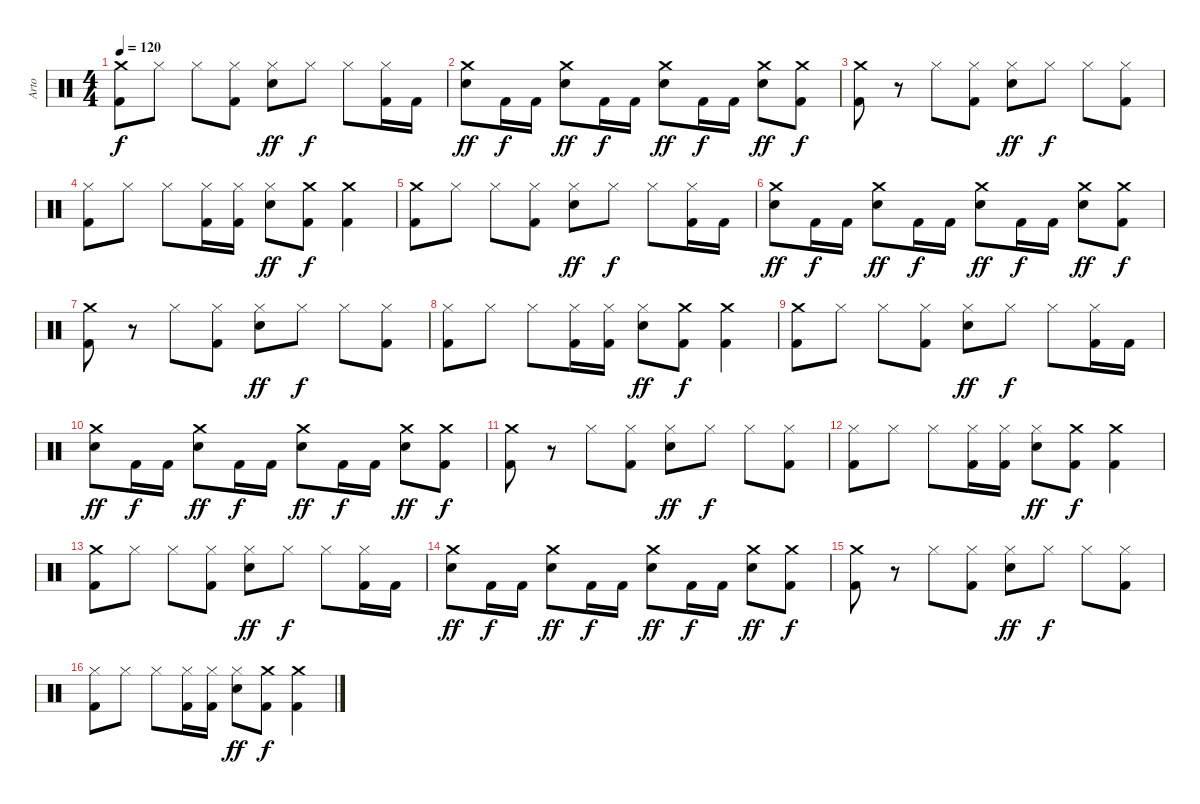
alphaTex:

\track ("Arto" "Arto") {instrument percussion}
\staff {score}
\articulation defaults
\ts (4 4)
\tempo 120
\clef neutral
\ks c
("Crash medium (hit)" "Kick (hit) 2").8{dy f} "Hi-Hat (closed)".8 "Hi-Hat (closed)".8 ("Hi-Hat (closed)" "Kick (hit) 2").8 ("Hi-Hat (closed)" "Snare (hit) 2").8{dy ff} "Hi-Hat (closed)".8{dy f} "Hi-Hat (closed)".8 ("Hi-Hat (closed)" "Kick (hit) 2").16 "Kick (hit) 2".16 |
("Crash medium (hit)" "Snare (hit) 2").8{dy ff} "Kick (hit) 2".16{dy f} "Kick (hit) 2".16 ("Crash medium (hit)" "Snare (hit) 2").8{dy ff} "Kick (hit) 2".16{dy f} "Kick (hit) 2".16 ("Crash medium (hit)" "Snare (hit) 2").8{dy ff} "Kick (hit) 2".16{dy f} "Kick (hit) 2".16 ("Crash medium (hit)" "Snare (hit) 2").8{dy ff} ("Crash medium (hit)" "Kick (hit) 2").8{dy f} |
("Crash medium (hit)" "Kick (hit) 2").8 r.8 "Hi-Hat (closed)".8 ("Hi-Hat (closed)" "Kick (hit) 2").8 ("Hi-Hat (closed)" "Snare (hit) 2").8{dy ff} "Hi-Hat (closed)".8{dy f} "Hi-Hat (closed)".8 ("Hi-Hat (closed)" "Kick (hit) 2").8 |
("Hi-Hat (closed)" "Kick (hit) 2").8 "Hi-Hat (closed)".8 "Hi-Hat (closed)".8 ("Hi-Hat (closed)" "Kick (hit) 2").16 ("Hi-Hat (closed)" "Kick (hit) 2").16 ("Hi-Hat (closed)" "Snare (hit) 2").8{dy ff} ("Crash medium (hit)" "Kick (hit) 2").8{dy f} ("Crash medium (hit)" "Kick (hit) 2").4 |
("Crash medium (hit)" "Kick (hit) 2").8 "Hi-Hat (closed)".8 "Hi-Hat (closed)".8 ("Hi-Hat (closed)" "Kick (hit) 2").8 ("Hi-Hat (closed)" "Snare (hit) 2").8{dy ff} "Hi-Hat (closed)".8{dy f} "Hi-Hat (closed)".8 ("Hi-Hat (closed)" "Kick (hit) 2").16 "Kick (hit) 2".16 |
("Crash medium (hit)" "Snare (hit) 2").8{dy ff} "Kick (hit) 2".16{dy f} "Kick (hit) 2".16 ("Crash medium (hit)" "Snare (hit) 2").8{dy ff} "Kick (hit) 2".16{dy f} "Kick (hit) 2".16 ("Crash medium (hit)" "Snare (hit) 2").8{dy ff} "Kick (hit) 2".16{dy f} "Kick (hit) 2".16 ("Crash medium (hit)" "Snare (hit) 2").8{dy ff} ("Crash medium (hit)" "Kick (hit) 2").8{dy f} |
("Crash medium (hit)" "Kick (hit) 2").8 r.8 "Hi-Hat (closed)".8 ("Hi-Hat (closed)" "Kick (hit) 2").8 ("Hi-Hat (closed)" "Snare (hit) 2").8{dy ff} "Hi-Hat (closed)".8{dy f} "Hi-Hat (closed)".8 ("Hi-Hat (closed)" "Kick (hit) 2").8 |
("Hi-Hat (closed)" "Kick (hit) 2").8 "Hi-Hat (closed)".8 "Hi-Hat (closed)".8 ("Hi-Hat (closed)" "Kick (hit) 2").16 ("Hi-Hat (closed)" "Kick (hit) 2").16 ("Hi-Hat (closed)" "Snare (hit) 2").8{dy ff} ("Crash medium (hit)" "Kick (hit) 2").8{dy f} ("Crash medium (hit)" "Kick (hit) 2").4 |
("Crash medium (hit)" "Kick (hit) 2").8 "Hi-Hat (closed)".8 "Hi-Hat (closed)".8 ("Hi-Hat (closed)" "Kick (hit) 2").8 ("Hi-Hat (closed)" "Snare (hit) 2").8{dy ff} "Hi-Hat (closed)".8{dy f} "Hi-Hat (closed)".8 ("Hi-Hat (closed)" "Kick (hit) 2").16 "Kick (hit) 2".16 |
("Crash medium (hit)" "Snare (hit) 2").8{dy ff} "Kick (hit) 2".16{dy f} "Kick (hit) 2".16 ("Crash medium (hit)" "Snare (hit) 2").8{dy ff} "Kick (hit) 2".16{dy f} "Kick (hit) 2".16 ("Crash medium (hit)" "Snare (hit) 2").8{dy ff} "Kick (hit) 2".16{dy f} "Kick (hit) 2".16 ("Crash medium (hit)" "Snare (hit) 2").8{dy ff} ("Crash medium (hit)" "Kick (hit) 2").8{dy f} |
("Crash medium (hit)" "Kick (hit) 2").8 r.8 "Hi-Hat (closed)".8 ("Hi-Hat (closed)" "Kick (hit) 2").8 ("Hi-Hat (closed)" "Snare (hit) 2").8{dy ff} "Hi-Hat (closed)".8{dy f} "Hi-Hat (closed)".8 ("Hi-Hat (closed)" "Kick (hit) 2").8 |
("Hi-Hat (closed)" "Kick (hit) 2").8 "Hi-Hat (closed)".8 "Hi-Hat (closed)".8 ("Hi-Hat (closed)" "Kick (hit) 2").16 ("Hi-Hat (closed)" "Kick (hit) 2").16 ("Hi-Hat (closed)" "Snare (hit) 2").8{dy ff} ("Crash medium (hit)" "Kick (hit) 2").8{dy f} ("Crash medium (hit)" "Kick (hit) 2").4 |
("Crash medium (hit)" "Kick (hit) 2").8 "Hi-Hat (closed)".8 "Hi-Hat (closed)".8 ("Hi-Hat (closed)" "Kick (hit) 2").8 ("Hi-Hat (closed)" "Snare (hit) 2").8{dy ff} "Hi-Hat (closed)".8{dy f} "Hi-Hat (closed)".8 ("Hi-Hat (closed)" "Kick (hit) 2").16 "Kick (hit) 2".16 |
("Crash medium (hit)" "Snare (hit) 2").8{dy ff} "Kick (hit) 2".16{dy f} "Kick (hit) 2".16 ("Crash medium (hit)" "Snare (hit) 2").8{dy ff} "Kick (hit) 2".16{dy f} "Kick (hit) 2".16 ("Crash medium (hit)" "Snare (hit) 2").8{dy ff} "Kick (hit) 2".16{dy f} "Kick (hit) 2".16 ("Crash medium (hit)" "Snare (hit) 2").8{dy ff} ("Crash medium (hit)" "Kick (hit) 2").8{dy f} |
("Crash medium (hit)" "Kick (hit) 2").8 r.8 "Hi-Hat (closed)".8 ("Hi-Hat (closed)" "Kick (hit) 2").8 ("Hi-Hat (closed)" "Snare (hit) 2").8{dy ff} "Hi-Hat (closed)".8{dy f} "Hi-Hat (closed)".8 ("Hi-Hat (closed)" "Kick (hit) 2").8 |
("Hi-Hat (closed)" "Kick (hit) 2").8 "Hi-Hat (closed)".8 "Hi-Hat (closed)".8 ("Hi-Hat (closed)" "Kick (hit) 2").16 ("Hi-Hat (closed)" "Kick (hit) 2").16 ("Hi-Hat (closed)" "Snare (hit) 2").8{dy ff} ("Crash medium (hit)" "Kick (hit) 2").8{dy f} ("Crash medium (hit)" "Kick (hit) 2").4
